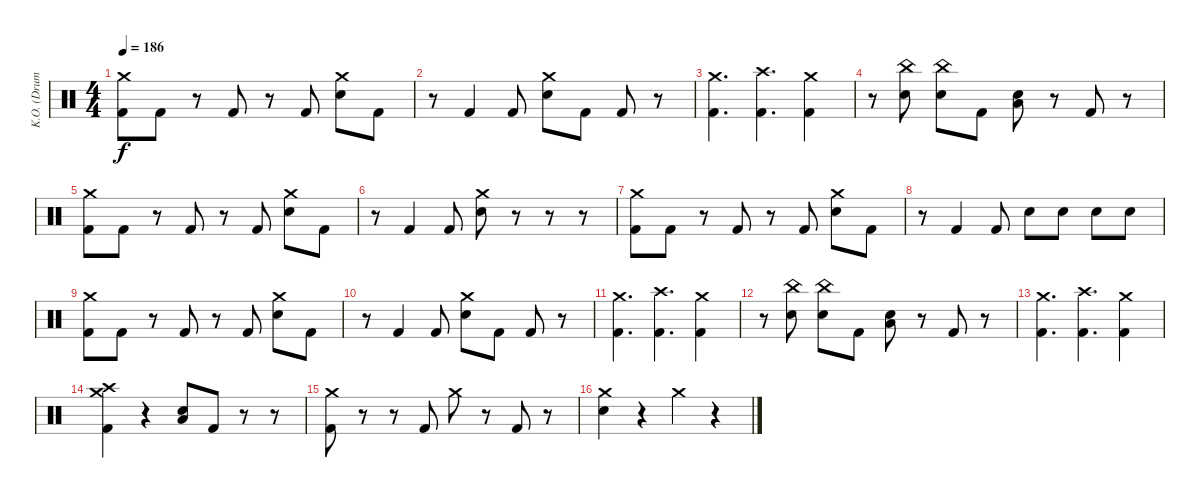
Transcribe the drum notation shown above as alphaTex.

\track ("K.O. (Drums)" "K.O. (Drum") {instrument percussion}
\staff {score}
\articulation defaults
\ts (4 4)
\tempo 186
\clef neutral
\ks c
("Crash medium (hit)" "Kick (hit) 2").8{dy f} "Kick (hit) 2".8 r.8 "Kick (hit) 2".8 r.8 "Kick (hit) 2".8 ("Crash medium (hit)" "Electric Snare (hit)").8 "Kick (hit) 2".8 |
r.8 "Kick (hit) 2".4 "Kick (hit) 2".8 ("Crash medium (hit)" "Electric Snare (hit)").8 "Kick (hit) 2".8 "Kick (hit) 2".8 r.8 |
("Crash medium (hit)" "Kick (hit) 2").4{d} ("Crash high (hit)" "Kick (hit) 2").4{d} ("Crash medium (hit)" "Kick (hit) 2").4 |
r.8 ("China (hit)" "Electric Snare (hit)").8 ("China (hit)" "Electric Snare (hit)").8 "Kick (hit) 2".8 ("Low Floor Tom (hit)" "Electric Snare (hit)").8 r.8 "Kick (hit) 2".8 r.8 |
("Crash medium (hit)" "Kick (hit) 2").8 "Kick (hit) 2".8 r.8 "Kick (hit) 2".8 r.8 "Kick (hit) 2".8 ("Crash medium (hit)" "Electric Snare (hit)").8 "Kick (hit) 2".8 |
r.8 "Kick (hit) 2".4 "Kick (hit) 2".8 ("Crash medium (hit)" "Electric Snare (hit)").8 r.8 r.8 r.8 |
("Crash medium (hit)" "Kick (hit) 2").8 "Kick (hit) 2".8 r.8 "Kick (hit) 2".8 r.8 "Kick (hit) 2".8 ("Crash medium (hit)" "Electric Snare (hit)").8 "Kick (hit) 2".8 |
r.8 "Kick (hit) 2".4 "Kick (hit) 2".8 "Electric Snare (hit)".8 "Electric Snare (hit)".8 "Electric Snare (hit)".8 "Electric Snare (hit)".8 |
("Crash medium (hit)" "Kick (hit) 2").8 "Kick (hit) 2".8 r.8 "Kick (hit) 2".8 r.8 "Kick (hit) 2".8 ("Crash medium (hit)" "Electric Snare (hit)").8 "Kick (hit) 2".8 |
r.8 "Kick (hit) 2".4 "Kick (hit) 2".8 ("Crash medium (hit)" "Electric Snare (hit)").8 "Kick (hit) 2".8 "Kick (hit) 2".8 r.8 |
("Crash medium (hit)" "Kick (hit) 2").4{d} ("Crash high (hit)" "Kick (hit) 2").4{d} ("Crash medium (hit)" "Kick (hit) 2").4 |
r.8 ("China (hit)" "Electric Snare (hit)").8 ("China (hit)" "Electric Snare (hit)").8 "Kick (hit) 2".8 ("Low Floor Tom (hit)" "Electric Snare (hit)").8 r.8 "Kick (hit) 2".8 r.8 |
("Crash medium (hit)" "Kick (hit) 2").4{d} ("Crash high (hit)" "Kick (hit) 2").4{d} ("Crash medium (hit)" "Kick (hit) 2").4 |
("Crash high (hit)" "Crash medium (hit)" "Kick (hit) 2").4 r.4 ("Low Floor Tom (hit)" "Electric Snare (hit)").8 "Kick (hit) 2".8 r.8 r.8 |
("Crash medium (hit)" "Kick (hit) 2").8 r.8 r.8 "Kick (hit) 2".8 "Crash medium (hit)".8 r.8 "Kick (hit) 2".8 r.8 |
("Crash medium (hit)" "Electric Snare (hit)").4 r.4 "Crash medium (hit)".4 r.4
